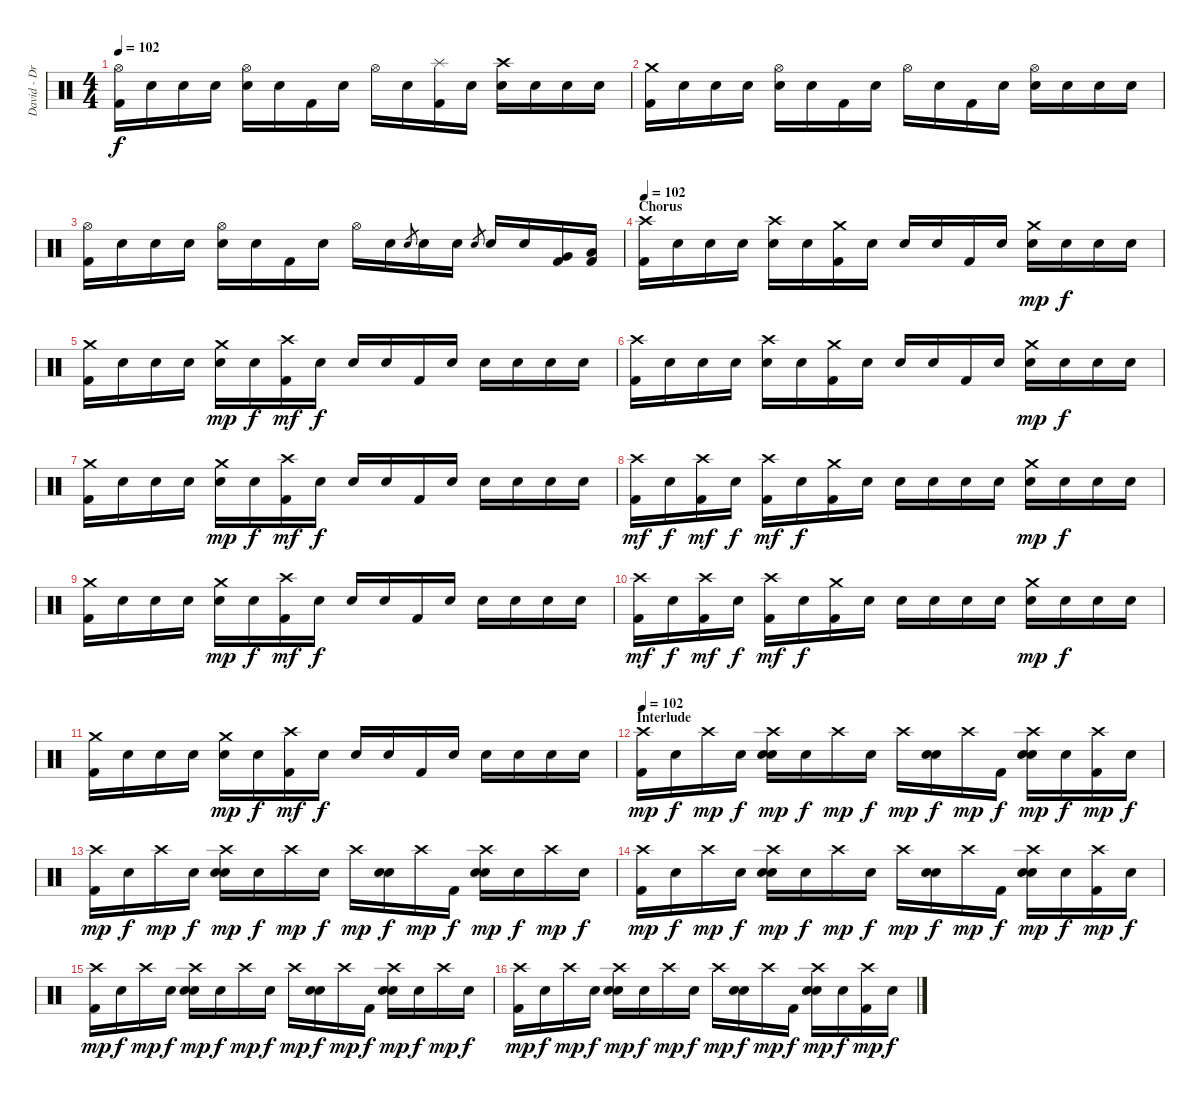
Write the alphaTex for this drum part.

\track ("David - Drums" "David - Dr") {instrument percussion}
\staff {score}
\articulation defaults
\ts (4 4)
\tempo 102
\clef neutral
\ks c
("Hi-Hat (open)" "Kick (hit) 2").16{dy f} "Snare (hit)".16 "Snare (hit)".16 "Snare (hit)".16 ("Hi-Hat (open)" "Electric Snare (hit)").16 "Snare (hit)".16 "Kick (hit) 2".16 "Snare (hit)".16 "Hi-Hat (open)".16 "Snare (hit)".16 ("Splash (hit)" "Kick (hit) 2").16 "Snare (hit)".16 ("Crash high (hit)" "Electric Snare (hit)").16 "Snare (hit)".16 "Snare (hit)".16 "Snare (hit)".16 |
("Crash medium (hit)" "Kick (hit) 2").16 "Snare (hit)".16 "Snare (hit)".16 "Snare (hit)".16 ("Hi-Hat (open)" "Electric Snare (hit)").16 "Snare (hit)".16 "Kick (hit) 2".16 "Snare (hit)".16 "Hi-Hat (open)".16 "Snare (hit)".16 "Kick (hit) 2".16 "Snare (hit)".16 ("Hi-Hat (open)" "Electric Snare (hit)").16 "Snare (hit)".16 "Snare (hit)".16 "Snare (hit)".16 |
("Hi-Hat (open)" "Kick (hit) 2").16 "Snare (hit)".16 "Snare (hit)".16 "Snare (hit)".16 ("Hi-Hat (open)" "Electric Snare (hit)").16 "Snare (hit)".16 "Kick (hit) 2".16 "Snare (hit)".16 "Hi-Hat (open)".16 "Snare (hit)".16 "Electric Snare (hit)".8{gr} "Electric Snare (hit)".16 "Snare (hit)".16 "Electric Snare (hit)".8{gr} "Electric Snare (hit)".16 "Snare (hit)".16 ("Very Low Tom (hit)" "Kick (hit) 2").16 ("Low Floor Tom (hit)" "Kick (hit) 2").16 |
\section ("" "Chorus")
\tempo 102
("Crash high (hit)" "Kick (hit) 2").16{volume 16 balance 8} "Snare (hit)".16 "Snare (hit)".16 "Snare (hit)".16 ("Crash high (hit)" "Electric Snare (hit)").16 "Snare (hit)".16 ("Crash medium (hit)" "Kick (hit) 2").16 "Snare (hit)".16 "Snare (hit)".16 "Snare (hit)".16 "Kick (hit) 2".16 "Snare (hit)".16 ("Crash medium (hit)" "Electric Snare (hit)").16{dy mp} "Snare (hit)".16{dy f} "Snare (hit)".16 "Snare (hit)".16 |
("Crash medium (hit)" "Kick (hit) 2").16 "Snare (hit)".16 "Snare (hit)".16 "Snare (hit)".16 ("Crash medium (hit)" "Electric Snare (hit)").16{dy mp} "Snare (hit)".16{dy f} ("Crash high (hit)" "Kick (hit) 2").16{dy mf} "Snare (hit)".16{dy f} "Snare (hit)".16 "Snare (hit)".16 "Kick (hit) 2".16 "Snare (hit)".16 "Electric Snare (hit)".16 "Snare (hit)".16 "Snare (hit)".16 "Snare (hit)".16 |
("Crash high (hit)" "Kick (hit) 2").16 "Snare (hit)".16 "Snare (hit)".16 "Snare (hit)".16 ("Crash high (hit)" "Electric Snare (hit)").16 "Snare (hit)".16 ("Crash medium (hit)" "Kick (hit) 2").16 "Snare (hit)".16 "Snare (hit)".16 "Snare (hit)".16 "Kick (hit) 2".16 "Snare (hit)".16 ("Crash medium (hit)" "Electric Snare (hit)").16{dy mp} "Snare (hit)".16{dy f} "Snare (hit)".16 "Snare (hit)".16 |
("Crash medium (hit)" "Kick (hit) 2").16 "Snare (hit)".16 "Snare (hit)".16 "Snare (hit)".16 ("Crash medium (hit)" "Electric Snare (hit)").16{dy mp} "Snare (hit)".16{dy f} ("Crash high (hit)" "Kick (hit) 2").16{dy mf} "Snare (hit)".16{dy f} "Snare (hit)".16 "Snare (hit)".16 "Kick (hit) 2".16 "Snare (hit)".16 "Electric Snare (hit)".16 "Snare (hit)".16 "Snare (hit)".16 "Snare (hit)".16 |
("Crash high (hit)" "Kick (hit) 2").16{dy mf} "Snare (hit)".16{dy f} ("Crash high (hit)" "Kick (hit) 2").16{dy mf} "Snare (hit)".16{dy f} ("Crash high (hit)" "Kick (hit) 2").16{dy mf} "Snare (hit)".16{dy f} ("Crash medium (hit)" "Kick (hit) 2").16 "Snare (hit)".16 "Snare (hit)".16 "Snare (hit)".16 "Snare (hit)".16 "Snare (hit)".16 ("Crash medium (hit)" "Electric Snare (hit)").16{dy mp} "Snare (hit)".16{dy f} "Snare (hit)".16 "Snare (hit)".16 |
("Crash medium (hit)" "Kick (hit) 2").16 "Snare (hit)".16 "Snare (hit)".16 "Snare (hit)".16 ("Crash medium (hit)" "Electric Snare (hit)").16{dy mp} "Snare (hit)".16{dy f} ("Crash high (hit)" "Kick (hit) 2").16{dy mf} "Snare (hit)".16{dy f} "Snare (hit)".16 "Snare (hit)".16 "Kick (hit) 2".16 "Snare (hit)".16 "Electric Snare (hit)".16 "Snare (hit)".16 "Snare (hit)".16 "Snare (hit)".16 |
("Crash high (hit)" "Kick (hit) 2").16{dy mf} "Snare (hit)".16{dy f} ("Crash high (hit)" "Kick (hit) 2").16{dy mf} "Snare (hit)".16{dy f} ("Crash high (hit)" "Kick (hit) 2").16{dy mf} "Snare (hit)".16{dy f} ("Crash medium (hit)" "Kick (hit) 2").16 "Snare (hit)".16 "Snare (hit)".16 "Snare (hit)".16 "Snare (hit)".16 "Snare (hit)".16 ("Crash medium (hit)" "Electric Snare (hit)").16{dy mp} "Snare (hit)".16{dy f} "Snare (hit)".16 "Snare (hit)".16 |
("Crash medium (hit)" "Kick (hit) 2").16 "Snare (hit)".16 "Snare (hit)".16 "Snare (hit)".16 ("Crash medium (hit)" "Electric Snare (hit)").16{dy mp} "Snare (hit)".16{dy f} ("Crash high (hit)" "Kick (hit) 2").16{dy mf} "Snare (hit)".16{dy f} "Snare (hit)".16 "Snare (hit)".16 "Kick (hit) 2".16 "Snare (hit)".16 "Electric Snare (hit)".16 "Snare (hit)".16 "Snare (hit)".16 "Snare (hit)".16 |
\section ("" "Interlude")
\tempo 102
("Crash high (hit)" "Kick (hit) 2").16{dy mp volume 16 balance 8} "Snare (hit)".16{dy f} "Crash high (hit)".16{dy mp} "Snare (hit)".16{dy f} ("Crash high (hit)" "Electric Snare (hit)" "Snare (hit) 2").16{dy mp} "Snare (hit)".16{dy f} "Crash high (hit)".16{dy mp} "Snare (hit)".16{dy f} "Crash high (hit)".16{dy mp} ("Electric Snare (hit)" "Snare (hit) 2").16{dy f} "Crash high (hit)".16{dy mp} "Kick (hit) 2".16{dy f} ("Crash high (hit)" "Electric Snare (hit)" "Snare (hit) 2").16{dy mp} "Snare (hit)".16{dy f} ("Crash high (hit)" "Kick (hit) 2").16{dy mp} "Snare (hit)".16{dy f} |
("Crash high (hit)" "Kick (hit) 2").16{dy mp} "Snare (hit)".16{dy f} "Crash high (hit)".16{dy mp} "Snare (hit)".16{dy f} ("Crash high (hit)" "Electric Snare (hit)" "Snare (hit) 2").16{dy mp} "Snare (hit)".16{dy f} "Crash high (hit)".16{dy mp} "Snare (hit)".16{dy f} "Crash high (hit)".16{dy mp} ("Electric Snare (hit)" "Snare (hit) 2").16{dy f} "Crash high (hit)".16{dy mp} "Kick (hit) 2".16{dy f} ("Crash high (hit)" "Electric Snare (hit)" "Snare (hit) 2").16{dy mp} "Snare (hit)".16{dy f} "Crash high (hit)".16{dy mp} "Snare (hit)".16{dy f} |
("Crash high (hit)" "Kick (hit) 2").16{dy mp} "Snare (hit)".16{dy f} "Crash high (hit)".16{dy mp} "Snare (hit)".16{dy f} ("Crash high (hit)" "Electric Snare (hit)" "Snare (hit) 2").16{dy mp} "Snare (hit)".16{dy f} "Crash high (hit)".16{dy mp} "Snare (hit)".16{dy f} "Crash high (hit)".16{dy mp} ("Electric Snare (hit)" "Snare (hit) 2").16{dy f} "Crash high (hit)".16{dy mp} "Kick (hit) 2".16{dy f} ("Crash high (hit)" "Electric Snare (hit)" "Snare (hit) 2").16{dy mp} "Snare (hit)".16{dy f} ("Crash high (hit)" "Kick (hit) 2").16{dy mp} "Snare (hit)".16{dy f} |
("Crash high (hit)" "Kick (hit) 2").16{dy mp} "Snare (hit)".16{dy f} "Crash high (hit)".16{dy mp} "Snare (hit)".16{dy f} ("Crash high (hit)" "Electric Snare (hit)" "Snare (hit) 2").16{dy mp} "Snare (hit)".16{dy f} "Crash high (hit)".16{dy mp} "Snare (hit)".16{dy f} "Crash high (hit)".16{dy mp} ("Electric Snare (hit)" "Snare (hit) 2").16{dy f} "Crash high (hit)".16{dy mp} "Kick (hit) 2".16{dy f} ("Crash high (hit)" "Electric Snare (hit)" "Snare (hit) 2").16{dy mp} "Snare (hit)".16{dy f} "Crash high (hit)".16{dy mp} "Snare (hit)".16{dy f} |
("Crash high (hit)" "Kick (hit) 2").16{dy mp} "Snare (hit)".16{dy f} "Crash high (hit)".16{dy mp} "Snare (hit)".16{dy f} ("Crash high (hit)" "Electric Snare (hit)" "Snare (hit) 2").16{dy mp} "Snare (hit)".16{dy f} "Crash high (hit)".16{dy mp} "Snare (hit)".16{dy f} "Crash high (hit)".16{dy mp} ("Electric Snare (hit)" "Snare (hit) 2").16{dy f} "Crash high (hit)".16{dy mp} "Kick (hit) 2".16{dy f} ("Crash high (hit)" "Electric Snare (hit)" "Snare (hit) 2").16{dy mp} "Snare (hit)".16{dy f} ("Crash high (hit)" "Kick (hit) 2").16{dy mp} "Snare (hit)".16{dy f}
